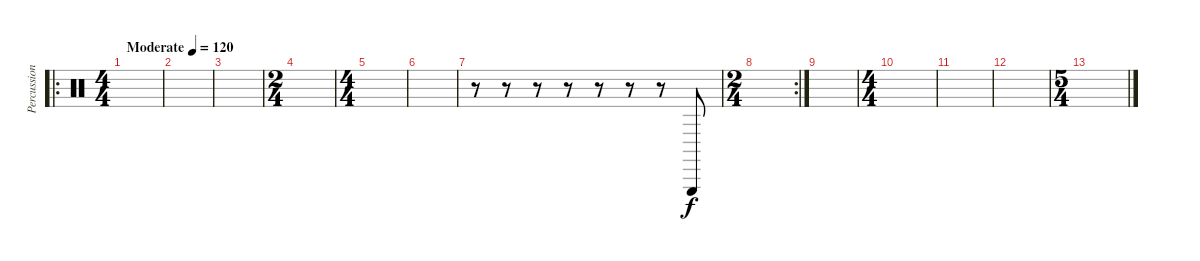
\track ("Percussion" "Percussion") {instrument percussion}
\staff {score}
\articulation defaults
\ro
\ts (4 4)
\tempo (120 "Moderate")
\clef neutral
\ks c
|
|
|
\ts (2 4)
|
\ts (4 4)
|
|
r.8 r.8 r.8 r.8 r.8 r.8 r.8 "Triangle (hit)".8 |
\rc 2
\ts (2 4)
|
|
\ts (4 4)
|
|
|
\ts (5 4)
